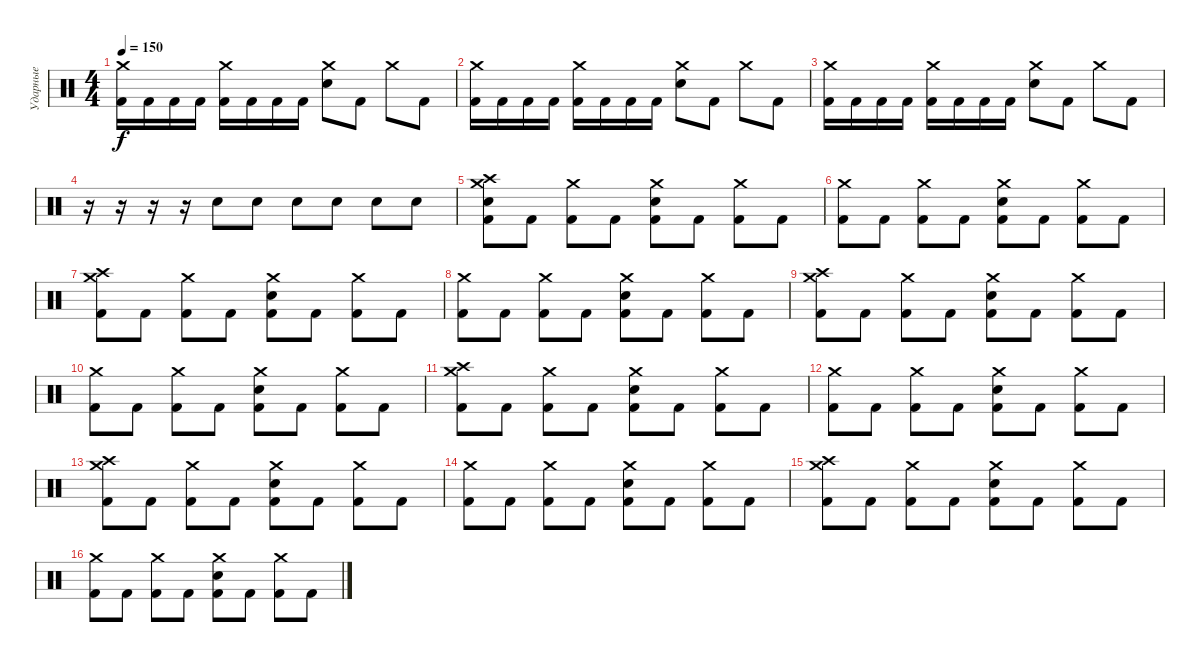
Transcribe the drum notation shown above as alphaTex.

\track ("Ударные" "Ударные") {instrument percussion}
\staff {score}
\articulation defaults
\ts (4 4)
\tempo 150
\clef neutral
\ks c
("Crash medium (hit)" "Kick (hit) 2").16{dy f} "Kick (hit) 2".16 "Kick (hit) 2".16 "Kick (hit) 2".16 ("Crash medium (hit)" "Kick (hit) 2").16 "Kick (hit) 2".16 "Kick (hit) 2".16 "Kick (hit) 2".16 ("Crash medium (hit)" "Electric Snare (hit)").8 "Kick (hit) 2".8 "Crash medium (hit)".8 "Kick (hit) 2".8 |
("Crash medium (hit)" "Kick (hit) 2").16 "Kick (hit) 2".16 "Kick (hit) 2".16 "Kick (hit) 2".16 ("Crash medium (hit)" "Kick (hit) 2").16 "Kick (hit) 2".16 "Kick (hit) 2".16 "Kick (hit) 2".16 ("Crash medium (hit)" "Electric Snare (hit)").8 "Kick (hit) 2".8 "Crash medium (hit)".8 "Kick (hit) 2".8 |
("Crash medium (hit)" "Kick (hit) 2").16 "Kick (hit) 2".16 "Kick (hit) 2".16 "Kick (hit) 2".16 ("Crash medium (hit)" "Kick (hit) 2").16 "Kick (hit) 2".16 "Kick (hit) 2".16 "Kick (hit) 2".16 ("Crash medium (hit)" "Electric Snare (hit)").8 "Kick (hit) 2".8 "Crash medium (hit)".8 "Kick (hit) 2".8 |
r.16 r.16 r.16 r.16 "Electric Snare (hit)".8 "Electric Snare (hit)".8 "Electric Snare (hit)".8 "Electric Snare (hit)".8 "Electric Snare (hit)".8 "Electric Snare (hit)".8 |
("Crash medium (hit)" "Crash high (hit)" "Electric Snare (hit)" "Kick (hit) 2").8 "Kick (hit) 2".8 ("Crash medium (hit)" "Kick (hit) 2").8 "Kick (hit) 2".8 ("Crash medium (hit)" "Electric Snare (hit)" "Kick (hit) 2").8 "Kick (hit) 2".8 ("Crash medium (hit)" "Kick (hit) 2").8 "Kick (hit) 2".8 |
("Crash medium (hit)" "Kick (hit) 2").8 "Kick (hit) 2".8 ("Crash medium (hit)" "Kick (hit) 2").8 "Kick (hit) 2".8 ("Crash medium (hit)" "Electric Snare (hit)" "Kick (hit) 2").8 "Kick (hit) 2".8 ("Crash medium (hit)" "Kick (hit) 2").8 "Kick (hit) 2".8 |
("Crash medium (hit)" "Crash high (hit)" "Kick (hit) 2").8 "Kick (hit) 2".8 ("Crash medium (hit)" "Kick (hit) 2").8 "Kick (hit) 2".8 ("Crash medium (hit)" "Electric Snare (hit)" "Kick (hit) 2").8 "Kick (hit) 2".8 ("Crash medium (hit)" "Kick (hit) 2").8 "Kick (hit) 2".8 |
("Crash medium (hit)" "Kick (hit) 2").8 "Kick (hit) 2".8 ("Crash medium (hit)" "Kick (hit) 2").8 "Kick (hit) 2".8 ("Crash medium (hit)" "Electric Snare (hit)" "Kick (hit) 2").8 "Kick (hit) 2".8 ("Crash medium (hit)" "Kick (hit) 2").8 "Kick (hit) 2".8 |
("Crash medium (hit)" "Crash high (hit)" "Kick (hit) 2").8 "Kick (hit) 2".8 ("Crash medium (hit)" "Kick (hit) 2").8 "Kick (hit) 2".8 ("Crash medium (hit)" "Electric Snare (hit)" "Kick (hit) 2").8 "Kick (hit) 2".8 ("Crash medium (hit)" "Kick (hit) 2").8 "Kick (hit) 2".8 |
("Crash medium (hit)" "Kick (hit) 2").8 "Kick (hit) 2".8 ("Crash medium (hit)" "Kick (hit) 2").8 "Kick (hit) 2".8 ("Crash medium (hit)" "Electric Snare (hit)" "Kick (hit) 2").8 "Kick (hit) 2".8 ("Crash medium (hit)" "Kick (hit) 2").8 "Kick (hit) 2".8 |
("Crash medium (hit)" "Crash high (hit)" "Kick (hit) 2").8 "Kick (hit) 2".8 ("Crash medium (hit)" "Kick (hit) 2").8 "Kick (hit) 2".8 ("Crash medium (hit)" "Electric Snare (hit)" "Kick (hit) 2").8 "Kick (hit) 2".8 ("Crash medium (hit)" "Kick (hit) 2").8 "Kick (hit) 2".8 |
("Crash medium (hit)" "Kick (hit) 2").8 "Kick (hit) 2".8 ("Crash medium (hit)" "Kick (hit) 2").8 "Kick (hit) 2".8 ("Crash medium (hit)" "Electric Snare (hit)" "Kick (hit) 2").8 "Kick (hit) 2".8 ("Crash medium (hit)" "Kick (hit) 2").8 "Kick (hit) 2".8 |
("Crash medium (hit)" "Crash high (hit)" "Kick (hit) 2").8 "Kick (hit) 2".8 ("Crash medium (hit)" "Kick (hit) 2").8 "Kick (hit) 2".8 ("Crash medium (hit)" "Electric Snare (hit)" "Kick (hit) 2").8 "Kick (hit) 2".8 ("Crash medium (hit)" "Kick (hit) 2").8 "Kick (hit) 2".8 |
("Crash medium (hit)" "Kick (hit) 2").8 "Kick (hit) 2".8 ("Crash medium (hit)" "Kick (hit) 2").8 "Kick (hit) 2".8 ("Crash medium (hit)" "Electric Snare (hit)" "Kick (hit) 2").8 "Kick (hit) 2".8 ("Crash medium (hit)" "Kick (hit) 2").8 "Kick (hit) 2".8 |
("Crash medium (hit)" "Crash high (hit)" "Kick (hit) 2").8 "Kick (hit) 2".8 ("Crash medium (hit)" "Kick (hit) 2").8 "Kick (hit) 2".8 ("Crash medium (hit)" "Electric Snare (hit)" "Kick (hit) 2").8 "Kick (hit) 2".8 ("Crash medium (hit)" "Kick (hit) 2").8 "Kick (hit) 2".8 |
("Crash medium (hit)" "Kick (hit) 2").8 "Kick (hit) 2".8 ("Crash medium (hit)" "Kick (hit) 2").8 "Kick (hit) 2".8 ("Crash medium (hit)" "Electric Snare (hit)" "Kick (hit) 2").8 "Kick (hit) 2".8 ("Crash medium (hit)" "Kick (hit) 2").8 "Kick (hit) 2".8
